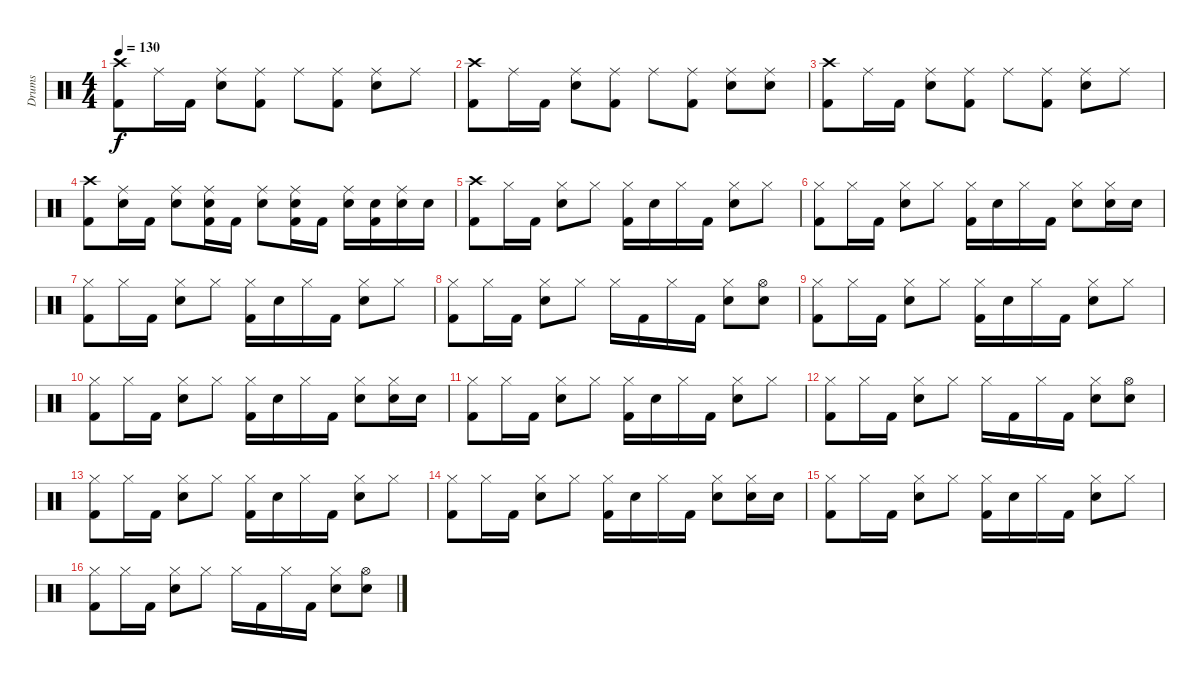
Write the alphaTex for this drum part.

\track ("Drums" "Drums") {instrument percussion}
\staff {score}
\articulation defaults
\ts (4 4)
\tempo 130
\clef neutral
\ks c
("Crash high (hit)" "Kick (hit) 2").8{dy f} "Ride (middle)".16 "Kick (hit) 2".16 ("Ride (middle)" "Electric Snare (hit)").8 ("Ride (middle)" "Kick (hit) 2").8 "Ride (middle)".8 ("Ride (middle)" "Kick (hit) 2").8 ("Ride (middle)" "Electric Snare (hit)").8 "Ride (middle)".8 |
("Crash high (hit)" "Kick (hit) 2").8 "Ride (middle)".16 "Kick (hit) 2".16 ("Ride (middle)" "Electric Snare (hit)").8 ("Ride (middle)" "Kick (hit) 2").8 "Ride (middle)".8 ("Ride (middle)" "Kick (hit) 2").8 ("Ride (middle)" "Electric Snare (hit)").8 ("Ride (middle)" "Electric Snare (hit)").8 |
("Crash high (hit)" "Kick (hit) 2").8 "Ride (middle)".16 "Kick (hit) 2".16 ("Ride (middle)" "Electric Snare (hit)").8 ("Ride (middle)" "Kick (hit) 2").8 "Ride (middle)".8 ("Ride (middle)" "Kick (hit) 2").8 ("Ride (middle)" "Electric Snare (hit)").8 "Ride (middle)".8 |
("Crash high (hit)" "Kick (hit) 2").8 ("Ride (middle)" "Electric Snare (hit)").16 "Kick (hit) 2".16 ("Ride (middle)" "Electric Snare (hit)").8 ("Ride (middle)" "Electric Snare (hit)" "Kick (hit) 2").16 "Kick (hit) 2".16 ("Ride (middle)" "Electric Snare (hit)").8 ("Ride (middle)" "Electric Snare (hit)" "Kick (hit) 2").16 "Kick (hit) 2".16 ("Ride (middle)" "Electric Snare (hit)").16 ("Electric Snare (hit)" "Kick (hit) 2").16 ("Ride (middle)" "Electric Snare (hit)").16 "Electric Snare (hit)".16 |
("Crash high (hit)" "Kick (hit) 2").8 "Hi-Hat (closed)".16 "Kick (hit) 2".16 ("Hi-Hat (closed)" "Electric Snare (hit)").8 "Hi-Hat (closed)".8 ("Hi-Hat (closed)" "Kick (hit) 2").16 "Electric Snare (hit)".16 "Hi-Hat (closed)".16 "Kick (hit) 2".16 ("Hi-Hat (closed)" "Electric Snare (hit)").8 "Hi-Hat (closed)".8 |
("Hi-Hat (closed)" "Kick (hit) 2").8 "Hi-Hat (closed)".16 "Kick (hit) 2".16 ("Hi-Hat (closed)" "Electric Snare (hit)").8 "Hi-Hat (closed)".8 ("Hi-Hat (closed)" "Kick (hit) 2").16 "Electric Snare (hit)".16 "Hi-Hat (closed)".16 "Kick (hit) 2".16 ("Hi-Hat (closed)" "Electric Snare (hit)").8 ("Hi-Hat (closed)" "Electric Snare (hit)").16 "Electric Snare (hit)".16 |
("Hi-Hat (closed)" "Kick (hit) 2").8 "Hi-Hat (closed)".16 "Kick (hit) 2".16 ("Hi-Hat (closed)" "Electric Snare (hit)").8 "Hi-Hat (closed)".8 ("Hi-Hat (closed)" "Kick (hit) 2").16 "Electric Snare (hit)".16 "Hi-Hat (closed)".16 "Kick (hit) 2".16 ("Hi-Hat (closed)" "Electric Snare (hit)").8 "Hi-Hat (closed)".8 |
("Hi-Hat (closed)" "Kick (hit) 2").8 "Hi-Hat (closed)".16 "Kick (hit) 2".16 ("Hi-Hat (closed)" "Electric Snare (hit)").8 "Hi-Hat (closed)".8 "Hi-Hat (closed)".16 "Kick (hit) 2".16 "Hi-Hat (closed)".16 "Kick (hit) 2".16 ("Hi-Hat (closed)" "Electric Snare (hit)").8 ("Hi-Hat (open)" "Electric Snare (hit)").8 |
("Hi-Hat (closed)" "Kick (hit) 2").8 "Hi-Hat (closed)".16 "Kick (hit) 2".16 ("Hi-Hat (closed)" "Electric Snare (hit)").8 "Hi-Hat (closed)".8 ("Hi-Hat (closed)" "Kick (hit) 2").16 "Electric Snare (hit)".16 "Hi-Hat (closed)".16 "Kick (hit) 2".16 ("Hi-Hat (closed)" "Electric Snare (hit)").8 "Hi-Hat (closed)".8 |
("Hi-Hat (closed)" "Kick (hit) 2").8 "Hi-Hat (closed)".16 "Kick (hit) 2".16 ("Hi-Hat (closed)" "Electric Snare (hit)").8 "Hi-Hat (closed)".8 ("Hi-Hat (closed)" "Kick (hit) 2").16 "Electric Snare (hit)".16 "Hi-Hat (closed)".16 "Kick (hit) 2".16 ("Hi-Hat (closed)" "Electric Snare (hit)").8 ("Hi-Hat (closed)" "Electric Snare (hit)").16 "Electric Snare (hit)".16 |
("Hi-Hat (closed)" "Kick (hit) 2").8 "Hi-Hat (closed)".16 "Kick (hit) 2".16 ("Hi-Hat (closed)" "Electric Snare (hit)").8 "Hi-Hat (closed)".8 ("Hi-Hat (closed)" "Kick (hit) 2").16 "Electric Snare (hit)".16 "Hi-Hat (closed)".16 "Kick (hit) 2".16 ("Hi-Hat (closed)" "Electric Snare (hit)").8 "Hi-Hat (closed)".8 |
("Hi-Hat (closed)" "Kick (hit) 2").8 "Hi-Hat (closed)".16 "Kick (hit) 2".16 ("Hi-Hat (closed)" "Electric Snare (hit)").8 "Hi-Hat (closed)".8 "Hi-Hat (closed)".16 "Kick (hit) 2".16 "Hi-Hat (closed)".16 "Kick (hit) 2".16 ("Hi-Hat (closed)" "Electric Snare (hit)").8 ("Hi-Hat (open)" "Electric Snare (hit)").8 |
("Hi-Hat (closed)" "Kick (hit) 2").8 "Hi-Hat (closed)".16 "Kick (hit) 2".16 ("Hi-Hat (closed)" "Electric Snare (hit)").8 "Hi-Hat (closed)".8 ("Hi-Hat (closed)" "Kick (hit) 2").16 "Electric Snare (hit)".16 "Hi-Hat (closed)".16 "Kick (hit) 2".16 ("Hi-Hat (closed)" "Electric Snare (hit)").8 "Hi-Hat (closed)".8 |
("Hi-Hat (closed)" "Kick (hit) 2").8 "Hi-Hat (closed)".16 "Kick (hit) 2".16 ("Hi-Hat (closed)" "Electric Snare (hit)").8 "Hi-Hat (closed)".8 ("Hi-Hat (closed)" "Kick (hit) 2").16 "Electric Snare (hit)".16 "Hi-Hat (closed)".16 "Kick (hit) 2".16 ("Hi-Hat (closed)" "Electric Snare (hit)").8 ("Hi-Hat (closed)" "Electric Snare (hit)").16 "Electric Snare (hit)".16 |
("Hi-Hat (closed)" "Kick (hit) 2").8 "Hi-Hat (closed)".16 "Kick (hit) 2".16 ("Hi-Hat (closed)" "Electric Snare (hit)").8 "Hi-Hat (closed)".8 ("Hi-Hat (closed)" "Kick (hit) 2").16 "Electric Snare (hit)".16 "Hi-Hat (closed)".16 "Kick (hit) 2".16 ("Hi-Hat (closed)" "Electric Snare (hit)").8 "Hi-Hat (closed)".8 |
("Hi-Hat (closed)" "Kick (hit) 2").8 "Hi-Hat (closed)".16 "Kick (hit) 2".16 ("Hi-Hat (closed)" "Electric Snare (hit)").8 "Hi-Hat (closed)".8 "Hi-Hat (closed)".16 "Kick (hit) 2".16 "Hi-Hat (closed)".16 "Kick (hit) 2".16 ("Hi-Hat (closed)" "Electric Snare (hit)").8 ("Hi-Hat (open)" "Electric Snare (hit)").8
